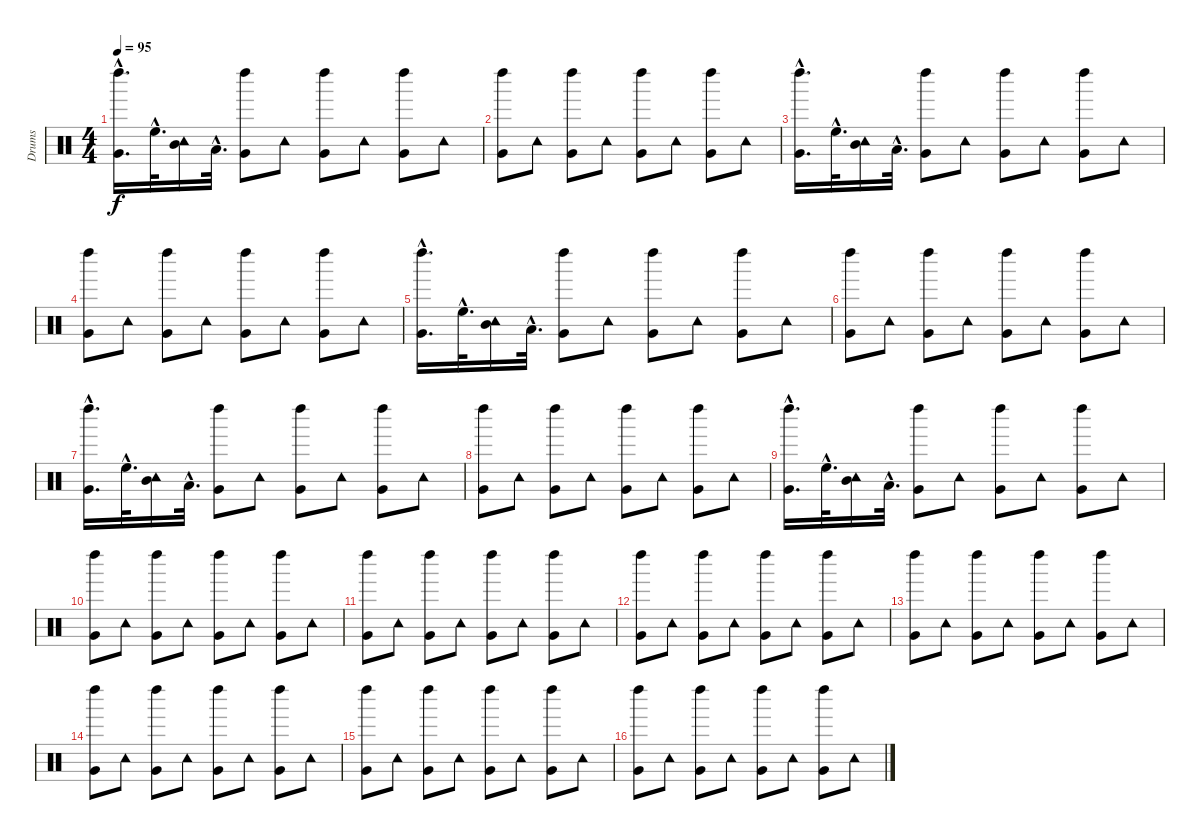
\track ("Drums" "Drums") {instrument percussion}
\staff {score}
\articulation defaults
\ts (4 4)
\tempo 95
\clef neutral
\ks c
("Very Low Tom (hit)"{hac} "Left Maraca (hit)"{hac}).16{d dy f} "High Floor Tom (hit)"{hac}.32{d} ("Mid Tom (hit)" "Tambourine (hit)").16 "Low Tom (hit)"{hac}.32{d} ("Very Low Tom (hit)" "Left Maraca (hit)").8 "Tambourine (hit)".8 ("Very Low Tom (hit)" "Left Maraca (hit)").8 "Tambourine (hit)".8 ("Very Low Tom (hit)" "Left Maraca (hit)").8 "Tambourine (hit)".8 |
("Very Low Tom (hit)" "Left Maraca (hit)").8 "Tambourine (hit)".8 ("Very Low Tom (hit)" "Left Maraca (hit)").8 "Tambourine (hit)".8 ("Very Low Tom (hit)" "Left Maraca (hit)").8 "Tambourine (hit)".8 ("Very Low Tom (hit)" "Left Maraca (hit)").8 "Tambourine (hit)".8 |
("Very Low Tom (hit)"{hac} "Left Maraca (hit)"{hac}).16{d} "High Floor Tom (hit)"{hac}.32{d} ("Mid Tom (hit)" "Tambourine (hit)").16 "Low Tom (hit)"{hac}.32{d} ("Very Low Tom (hit)" "Left Maraca (hit)").8 "Tambourine (hit)".8 ("Very Low Tom (hit)" "Left Maraca (hit)").8 "Tambourine (hit)".8 ("Very Low Tom (hit)" "Left Maraca (hit)").8 "Tambourine (hit)".8 |
("Very Low Tom (hit)" "Left Maraca (hit)").8 "Tambourine (hit)".8 ("Very Low Tom (hit)" "Left Maraca (hit)").8 "Tambourine (hit)".8 ("Very Low Tom (hit)" "Left Maraca (hit)").8 "Tambourine (hit)".8 ("Very Low Tom (hit)" "Left Maraca (hit)").8 "Tambourine (hit)".8 |
("Very Low Tom (hit)"{hac} "Left Maraca (hit)"{hac}).16{d} "High Floor Tom (hit)"{hac}.32{d} ("Mid Tom (hit)" "Tambourine (hit)").16 "Low Tom (hit)"{hac}.32{d} ("Very Low Tom (hit)" "Left Maraca (hit)").8 "Tambourine (hit)".8 ("Very Low Tom (hit)" "Left Maraca (hit)").8 "Tambourine (hit)".8 ("Very Low Tom (hit)" "Left Maraca (hit)").8 "Tambourine (hit)".8 |
("Very Low Tom (hit)" "Left Maraca (hit)").8 "Tambourine (hit)".8 ("Very Low Tom (hit)" "Left Maraca (hit)").8 "Tambourine (hit)".8 ("Very Low Tom (hit)" "Left Maraca (hit)").8 "Tambourine (hit)".8 ("Very Low Tom (hit)" "Left Maraca (hit)").8 "Tambourine (hit)".8 |
("Very Low Tom (hit)"{hac} "Left Maraca (hit)"{hac}).16{d} "High Floor Tom (hit)"{hac}.32{d} ("Mid Tom (hit)" "Tambourine (hit)").16 "Low Tom (hit)"{hac}.32{d} ("Very Low Tom (hit)" "Left Maraca (hit)").8 "Tambourine (hit)".8 ("Very Low Tom (hit)" "Left Maraca (hit)").8 "Tambourine (hit)".8 ("Very Low Tom (hit)" "Left Maraca (hit)").8 "Tambourine (hit)".8 |
("Very Low Tom (hit)" "Left Maraca (hit)").8 "Tambourine (hit)".8 ("Very Low Tom (hit)" "Left Maraca (hit)").8 "Tambourine (hit)".8 ("Very Low Tom (hit)" "Left Maraca (hit)").8 "Tambourine (hit)".8 ("Very Low Tom (hit)" "Left Maraca (hit)").8 "Tambourine (hit)".8 |
("Very Low Tom (hit)"{hac} "Left Maraca (hit)"{hac}).16{d} "High Floor Tom (hit)"{hac}.32{d} ("Mid Tom (hit)" "Tambourine (hit)").16 "Low Tom (hit)"{hac}.32{d} ("Very Low Tom (hit)" "Left Maraca (hit)").8 "Tambourine (hit)".8 ("Very Low Tom (hit)" "Left Maraca (hit)").8 "Tambourine (hit)".8 ("Very Low Tom (hit)" "Left Maraca (hit)").8 "Tambourine (hit)".8 |
("Very Low Tom (hit)" "Left Maraca (hit)").8 "Tambourine (hit)".8 ("Very Low Tom (hit)" "Left Maraca (hit)").8 "Tambourine (hit)".8 ("Very Low Tom (hit)" "Left Maraca (hit)").8 "Tambourine (hit)".8 ("Very Low Tom (hit)" "Left Maraca (hit)").8 "Tambourine (hit)".8 |
("Very Low Tom (hit)" "Left Maraca (hit)").8 "Tambourine (hit)".8 ("Very Low Tom (hit)" "Left Maraca (hit)").8 "Tambourine (hit)".8 ("Very Low Tom (hit)" "Left Maraca (hit)").8 "Tambourine (hit)".8 ("Very Low Tom (hit)" "Left Maraca (hit)").8 "Tambourine (hit)".8 |
("Very Low Tom (hit)" "Left Maraca (hit)").8 "Tambourine (hit)".8 ("Very Low Tom (hit)" "Left Maraca (hit)").8 "Tambourine (hit)".8 ("Very Low Tom (hit)" "Left Maraca (hit)").8 "Tambourine (hit)".8 ("Very Low Tom (hit)" "Left Maraca (hit)").8 "Tambourine (hit)".8 |
("Very Low Tom (hit)" "Left Maraca (hit)").8 "Tambourine (hit)".8 ("Very Low Tom (hit)" "Left Maraca (hit)").8 "Tambourine (hit)".8 ("Very Low Tom (hit)" "Left Maraca (hit)").8 "Tambourine (hit)".8 ("Very Low Tom (hit)" "Left Maraca (hit)").8 "Tambourine (hit)".8 |
("Very Low Tom (hit)" "Left Maraca (hit)").8 "Tambourine (hit)".8 ("Very Low Tom (hit)" "Left Maraca (hit)").8 "Tambourine (hit)".8 ("Very Low Tom (hit)" "Left Maraca (hit)").8 "Tambourine (hit)".8 ("Very Low Tom (hit)" "Left Maraca (hit)").8 "Tambourine (hit)".8 |
("Very Low Tom (hit)" "Left Maraca (hit)").8 "Tambourine (hit)".8 ("Very Low Tom (hit)" "Left Maraca (hit)").8 "Tambourine (hit)".8 ("Very Low Tom (hit)" "Left Maraca (hit)").8 "Tambourine (hit)".8 ("Very Low Tom (hit)" "Left Maraca (hit)").8 "Tambourine (hit)".8 |
("Very Low Tom (hit)" "Left Maraca (hit)").8 "Tambourine (hit)".8 ("Very Low Tom (hit)" "Left Maraca (hit)").8 "Tambourine (hit)".8 ("Very Low Tom (hit)" "Left Maraca (hit)").8 "Tambourine (hit)".8 ("Very Low Tom (hit)" "Left Maraca (hit)").8 "Tambourine (hit)".8
